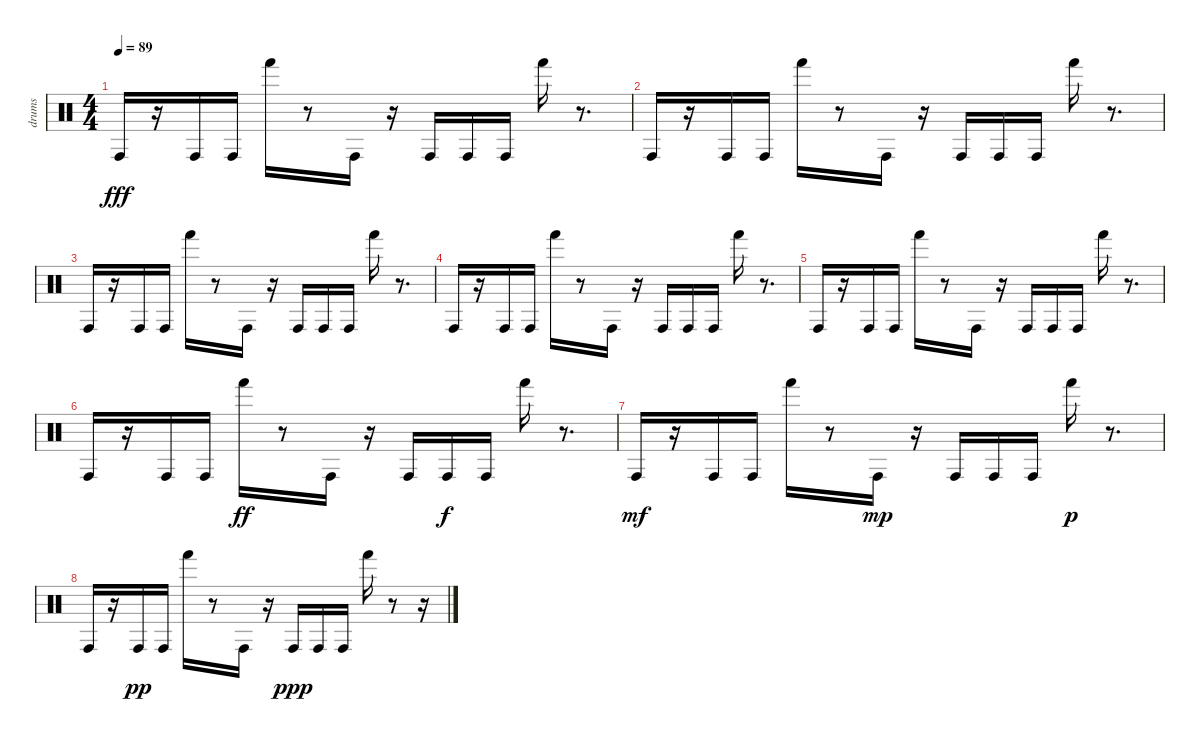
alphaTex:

\track ("drums" "drums") {instrument percussion}
\staff {score}
\articulation defaults
\ts (4 4)
\tempo 89
\clef neutral
\ks c "Conga high (hit)".16{dy fff}
r.16 "Conga high (hit)".16 "Conga high (hit)".16 "Hand (hit)".16 r.8 "Conga high (hit)".16 r.16 "Conga high (hit)".16 "Conga high (hit)".16 "Conga high (hit)".16 "Hand (hit)".16 r.8{d} |
"Conga high (hit)".16 r.16 "Conga high (hit)".16 "Conga high (hit)".16 "Hand (hit)".16 r.8 "Conga high (hit)".16 r.16 "Conga high (hit)".16 "Conga high (hit)".16 "Conga high (hit)".16 "Hand (hit)".16 r.8{d} |
"Conga high (hit)".16 r.16 "Conga high (hit)".16 "Conga high (hit)".16 "Hand (hit)".16 r.8 "Conga high (hit)".16 r.16 "Conga high (hit)".16 "Conga high (hit)".16 "Conga high (hit)".16 "Hand (hit)".16 r.8{d} |
"Conga high (hit)".16 r.16 "Conga high (hit)".16 "Conga high (hit)".16 "Hand (hit)".16 r.8 "Conga high (hit)".16 r.16 "Conga high (hit)".16 "Conga high (hit)".16 "Conga high (hit)".16 "Hand (hit)".16 r.8{d} |
"Conga high (hit)".16 r.16 "Conga high (hit)".16 "Conga high (hit)".16 "Hand (hit)".16 r.8 "Conga high (hit)".16 r.16 "Conga high (hit)".16 "Conga high (hit)".16 "Conga high (hit)".16 "Hand (hit)".16 r.8{d} |
"Conga high (hit)".16 r.16 "Conga high (hit)".16 "Conga high (hit)".16 "Hand (hit)".16{dy ff} r.8 "Conga high (hit)".16 r.16 "Conga high (hit)".16 "Conga high (hit)".16{dy f} "Conga high (hit)".16 "Hand (hit)".16 r.8{d} |
"Conga high (hit)".16{dy mf} r.16 "Conga high (hit)".16 "Conga high (hit)".16 "Hand (hit)".16 r.8 "Conga high (hit)".16{dy mp} r.16 "Conga high (hit)".16 "Conga high (hit)".16 "Conga high (hit)".16 "Hand (hit)".16{dy p} r.8{d} |
"Conga high (hit)".16 r.16 "Conga high (hit)".16{dy pp} "Conga high (hit)".16 "Hand (hit)".16 r.8 "Conga high (hit)".16 r.16 "Conga high (hit)".16{dy ppp} "Conga high (hit)".16 "Conga high (hit)".16 "Hand (hit)".16 r.8 r.16
